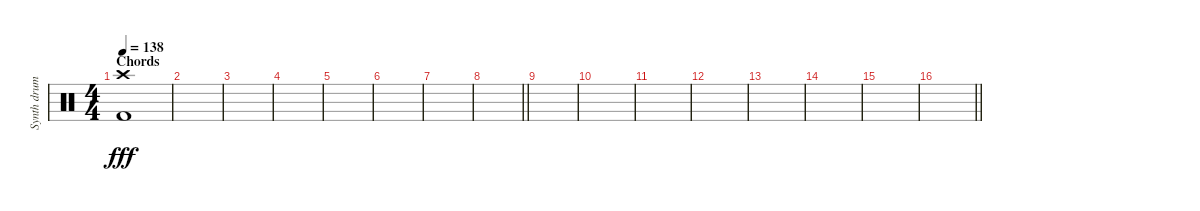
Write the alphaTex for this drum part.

\track ("Synth drums" "Synth drum") {instrument percussion}
\staff {score}
\articulation defaults
\ts (4 4)
\section ("" "Chords")
\tempo 138
\clef neutral
\ks c
("Crash high (hit)" "Kick (hit) 2").1{dy fff} |
|
|
|
|
|
|
\barLineRight lightlight
|
|
|
|
|
|
|
|
\barLineRight lightlight
